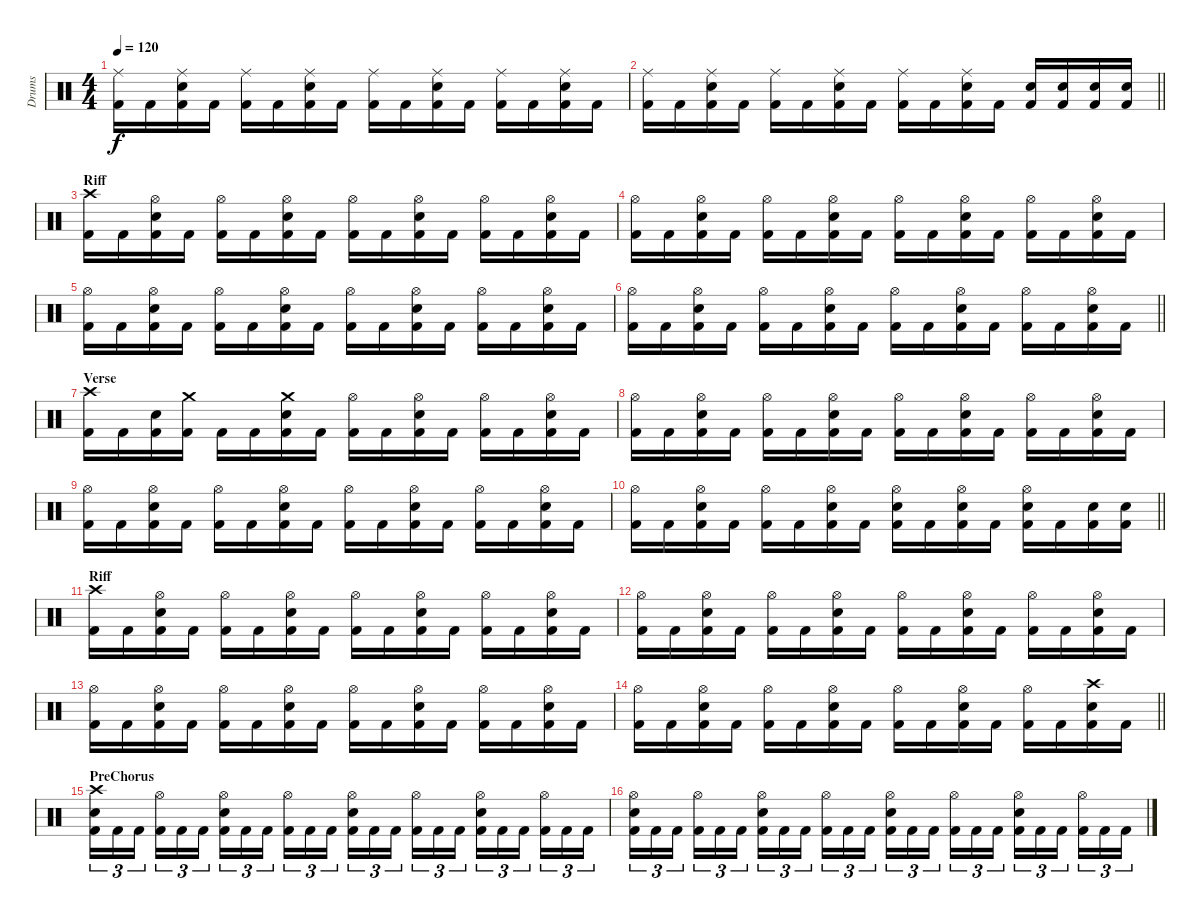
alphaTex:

\track ("Drums" "Drums") {instrument percussion}
\staff {score}
\articulation defaults
\ts (4 4)
\tempo 120
\clef neutral
\ks c
("Ride (middle)" "Kick (hit) 2").16{dy f} "Kick (hit) 2".16 ("Ride (middle)" "Snare (hit) 2" "Kick (hit) 2").16 "Kick (hit) 2".16 ("Ride (middle)" "Kick (hit) 2").16 "Kick (hit) 2".16 ("Ride (middle)" "Snare (hit) 2" "Kick (hit) 2").16 "Kick (hit) 2".16 ("Ride (middle)" "Kick (hit) 2").16 "Kick (hit) 2".16 ("Ride (middle)" "Snare (hit) 2" "Kick (hit) 2").16 "Kick (hit) 2".16 ("Ride (middle)" "Kick (hit) 2").16 "Kick (hit) 2".16 ("Ride (middle)" "Snare (hit) 2" "Kick (hit) 2").16 "Kick (hit) 2".16 |
\barLineRight lightlight
("Ride (middle)" "Kick (hit) 2").16 "Kick (hit) 2".16 ("Ride (middle)" "Snare (hit) 2" "Kick (hit) 2").16 "Kick (hit) 2".16 ("Ride (middle)" "Kick (hit) 2").16 "Kick (hit) 2".16 ("Ride (middle)" "Snare (hit) 2" "Kick (hit) 2").16 "Kick (hit) 2".16 ("Ride (middle)" "Kick (hit) 2").16 "Kick (hit) 2".16 ("Ride (middle)" "Snare (hit) 2" "Kick (hit) 2").16 "Kick (hit) 2".16 ("Snare (hit) 2" "Kick (hit) 2").16 ("Snare (hit) 2" "Kick (hit) 2").16 ("Snare (hit) 2" "Kick (hit) 2").16 ("Snare (hit) 2" "Kick (hit) 2").16 |
\section ("" "Riff")
("Crash high (hit)" "Kick (hit) 2").16 "Kick (hit) 2".16 ("Hi-Hat (open)" "Snare (hit) 2" "Kick (hit) 2").16 "Kick (hit) 2".16 ("Hi-Hat (open)" "Kick (hit) 2").16 "Kick (hit) 2".16 ("Hi-Hat (open)" "Snare (hit) 2" "Kick (hit) 2").16 "Kick (hit) 2".16 ("Hi-Hat (open)" "Kick (hit) 2").16 "Kick (hit) 2".16 ("Hi-Hat (open)" "Snare (hit) 2" "Kick (hit) 2").16 "Kick (hit) 2".16 ("Hi-Hat (open)" "Kick (hit) 2").16 "Kick (hit) 2".16 ("Hi-Hat (open)" "Snare (hit) 2" "Kick (hit) 2").16 "Kick (hit) 2".16 |
("Hi-Hat (open)" "Kick (hit) 2").16 "Kick (hit) 2".16 ("Hi-Hat (open)" "Snare (hit) 2" "Kick (hit) 2").16 "Kick (hit) 2".16 ("Hi-Hat (open)" "Kick (hit) 2").16 "Kick (hit) 2".16 ("Hi-Hat (open)" "Snare (hit) 2" "Kick (hit) 2").16 "Kick (hit) 2".16 ("Hi-Hat (open)" "Kick (hit) 2").16 "Kick (hit) 2".16 ("Hi-Hat (open)" "Snare (hit) 2" "Kick (hit) 2").16 "Kick (hit) 2".16 ("Hi-Hat (open)" "Kick (hit) 2").16 "Kick (hit) 2".16 ("Hi-Hat (open)" "Snare (hit) 2" "Kick (hit) 2").16 "Kick (hit) 2".16 |
("Hi-Hat (open)" "Kick (hit) 2").16 "Kick (hit) 2".16 ("Hi-Hat (open)" "Snare (hit) 2" "Kick (hit) 2").16 "Kick (hit) 2".16 ("Hi-Hat (open)" "Kick (hit) 2").16 "Kick (hit) 2".16 ("Hi-Hat (open)" "Snare (hit) 2" "Kick (hit) 2").16 "Kick (hit) 2".16 ("Hi-Hat (open)" "Kick (hit) 2").16 "Kick (hit) 2".16 ("Hi-Hat (open)" "Snare (hit) 2" "Kick (hit) 2").16 "Kick (hit) 2".16 ("Hi-Hat (open)" "Kick (hit) 2").16 "Kick (hit) 2".16 ("Hi-Hat (open)" "Snare (hit) 2" "Kick (hit) 2").16 "Kick (hit) 2".16 |
\barLineRight lightlight
("Hi-Hat (open)" "Kick (hit) 2").16 "Kick (hit) 2".16 ("Hi-Hat (open)" "Snare (hit) 2" "Kick (hit) 2").16 "Kick (hit) 2".16 ("Hi-Hat (open)" "Kick (hit) 2").16 "Kick (hit) 2".16 ("Hi-Hat (open)" "Snare (hit) 2" "Kick (hit) 2").16 "Kick (hit) 2".16 ("Hi-Hat (open)" "Kick (hit) 2").16 "Kick (hit) 2".16 ("Hi-Hat (open)" "Snare (hit) 2" "Kick (hit) 2").16 "Kick (hit) 2".16 ("Hi-Hat (open)" "Kick (hit) 2").16 "Kick (hit) 2".16 ("Hi-Hat (open)" "Snare (hit) 2" "Kick (hit) 2").16 "Kick (hit) 2".16 |
\section ("" "Verse")
("Crash high (hit)" "Kick (hit) 2").16 "Kick (hit) 2".16 ("Snare (hit) 2" "Kick (hit) 2").16 ("Crash medium (hit)" "Kick (hit) 2").16 "Kick (hit) 2".16 "Kick (hit) 2".16 ("Crash medium (hit)" "Snare (hit) 2" "Kick (hit) 2").16 "Kick (hit) 2".16 ("Hi-Hat (open)" "Kick (hit) 2").16 "Kick (hit) 2".16 ("Hi-Hat (open)" "Snare (hit) 2" "Kick (hit) 2").16 "Kick (hit) 2".16 ("Hi-Hat (open)" "Kick (hit) 2").16 "Kick (hit) 2".16 ("Hi-Hat (open)" "Snare (hit) 2" "Kick (hit) 2").16 "Kick (hit) 2".16 |
("Hi-Hat (open)" "Kick (hit) 2").16 "Kick (hit) 2".16 ("Hi-Hat (open)" "Snare (hit) 2" "Kick (hit) 2").16 "Kick (hit) 2".16 ("Hi-Hat (open)" "Kick (hit) 2").16 "Kick (hit) 2".16 ("Hi-Hat (open)" "Snare (hit) 2" "Kick (hit) 2").16 "Kick (hit) 2".16 ("Hi-Hat (open)" "Kick (hit) 2").16 "Kick (hit) 2".16 ("Hi-Hat (open)" "Snare (hit) 2" "Kick (hit) 2").16 "Kick (hit) 2".16 ("Hi-Hat (open)" "Kick (hit) 2").16 "Kick (hit) 2".16 ("Hi-Hat (open)" "Snare (hit) 2" "Kick (hit) 2").16 "Kick (hit) 2".16 |
("Hi-Hat (open)" "Kick (hit) 2").16 "Kick (hit) 2".16 ("Hi-Hat (open)" "Snare (hit) 2" "Kick (hit) 2").16 "Kick (hit) 2".16 ("Hi-Hat (open)" "Kick (hit) 2").16 "Kick (hit) 2".16 ("Hi-Hat (open)" "Snare (hit) 2" "Kick (hit) 2").16 "Kick (hit) 2".16 ("Hi-Hat (open)" "Kick (hit) 2").16 "Kick (hit) 2".16 ("Hi-Hat (open)" "Snare (hit) 2" "Kick (hit) 2").16 "Kick (hit) 2".16 ("Hi-Hat (open)" "Kick (hit) 2").16 "Kick (hit) 2".16 ("Hi-Hat (open)" "Snare (hit) 2" "Kick (hit) 2").16 "Kick (hit) 2".16 |
\barLineRight lightlight
("Hi-Hat (open)" "Kick (hit) 2").16 "Kick (hit) 2".16 ("Hi-Hat (open)" "Snare (hit) 2" "Kick (hit) 2").16 "Kick (hit) 2".16 ("Hi-Hat (open)" "Kick (hit) 2").16 "Kick (hit) 2".16 ("Hi-Hat (open)" "Snare (hit) 2" "Kick (hit) 2").16 "Kick (hit) 2".16 ("Hi-Hat (open)" "Snare (hit) 2" "Kick (hit) 2").16 "Kick (hit) 2".16 ("Hi-Hat (open)" "Snare (hit) 2" "Kick (hit) 2").16 "Kick (hit) 2".16 ("Hi-Hat (open)" "Snare (hit) 2" "Kick (hit) 2").16 "Kick (hit) 2".16 ("Snare (hit) 2" "Kick (hit) 2").16 ("Snare (hit) 2" "Kick (hit) 2").16 |
\section ("" "Riff")
("Crash high (hit)" "Kick (hit) 2").16 "Kick (hit) 2".16 ("Hi-Hat (open)" "Snare (hit) 2" "Kick (hit) 2").16 "Kick (hit) 2".16 ("Hi-Hat (open)" "Kick (hit) 2").16 "Kick (hit) 2".16 ("Hi-Hat (open)" "Snare (hit) 2" "Kick (hit) 2").16 "Kick (hit) 2".16 ("Hi-Hat (open)" "Kick (hit) 2").16 "Kick (hit) 2".16 ("Hi-Hat (open)" "Snare (hit) 2" "Kick (hit) 2").16 "Kick (hit) 2".16 ("Hi-Hat (open)" "Kick (hit) 2").16 "Kick (hit) 2".16 ("Hi-Hat (open)" "Snare (hit) 2" "Kick (hit) 2").16 "Kick (hit) 2".16 |
("Hi-Hat (open)" "Kick (hit) 2").16 "Kick (hit) 2".16 ("Hi-Hat (open)" "Snare (hit) 2" "Kick (hit) 2").16 "Kick (hit) 2".16 ("Hi-Hat (open)" "Kick (hit) 2").16 "Kick (hit) 2".16 ("Hi-Hat (open)" "Snare (hit) 2" "Kick (hit) 2").16 "Kick (hit) 2".16 ("Hi-Hat (open)" "Kick (hit) 2").16 "Kick (hit) 2".16 ("Hi-Hat (open)" "Snare (hit) 2" "Kick (hit) 2").16 "Kick (hit) 2".16 ("Hi-Hat (open)" "Kick (hit) 2").16 "Kick (hit) 2".16 ("Hi-Hat (open)" "Snare (hit) 2" "Kick (hit) 2").16 "Kick (hit) 2".16 |
("Hi-Hat (open)" "Kick (hit) 2").16 "Kick (hit) 2".16 ("Hi-Hat (open)" "Snare (hit) 2" "Kick (hit) 2").16 "Kick (hit) 2".16 ("Hi-Hat (open)" "Kick (hit) 2").16 "Kick (hit) 2".16 ("Hi-Hat (open)" "Snare (hit) 2" "Kick (hit) 2").16 "Kick (hit) 2".16 ("Hi-Hat (open)" "Kick (hit) 2").16 "Kick (hit) 2".16 ("Hi-Hat (open)" "Snare (hit) 2" "Kick (hit) 2").16 "Kick (hit) 2".16 ("Hi-Hat (open)" "Kick (hit) 2").16 "Kick (hit) 2".16 ("Hi-Hat (open)" "Snare (hit) 2" "Kick (hit) 2").16 "Kick (hit) 2".16 |
\barLineRight lightlight
("Hi-Hat (open)" "Kick (hit) 2").16 "Kick (hit) 2".16 ("Hi-Hat (open)" "Snare (hit) 2" "Kick (hit) 2").16 "Kick (hit) 2".16 ("Hi-Hat (open)" "Kick (hit) 2").16 "Kick (hit) 2".16 ("Hi-Hat (open)" "Snare (hit) 2" "Kick (hit) 2").16 "Kick (hit) 2".16 ("Hi-Hat (open)" "Kick (hit) 2").16 "Kick (hit) 2".16 ("Hi-Hat (open)" "Snare (hit) 2" "Kick (hit) 2").16 "Kick (hit) 2".16 ("Hi-Hat (open)" "Kick (hit) 2").16 "Kick (hit) 2".16 ("Crash high (hit)" "Snare (hit) 2" "Kick (hit) 2").16 "Kick (hit) 2".16 |
\section ("" "PreChorus")
("Crash high (hit)" "Snare (hit) 2" "Kick (hit) 2").16{tu (3 2)} "Kick (hit) 2".16{tu (3 2)} "Kick (hit) 2".16{tu (3 2)} ("Hi-Hat (open)" "Kick (hit) 2").16{tu (3 2)} "Kick (hit) 2".16{tu (3 2)} "Kick (hit) 2".16{tu (3 2)} ("Hi-Hat (open)" "Snare (hit) 2" "Kick (hit) 2").16{tu (3 2)} "Kick (hit) 2".16{tu (3 2)} "Kick (hit) 2".16{tu (3 2)} ("Hi-Hat (open)" "Kick (hit) 2").16{tu (3 2)} "Kick (hit) 2".16{tu (3 2)} "Kick (hit) 2".16{tu (3 2)} ("Hi-Hat (open)" "Snare (hit) 2" "Kick (hit) 2").16{tu (3 2)} "Kick (hit) 2".16{tu (3 2)} "Kick (hit) 2".16{tu (3 2)} ("Hi-Hat (open)" "Kick (hit) 2").16{tu (3 2)} "Kick (hit) 2".16{tu (3 2)} "Kick (hit) 2".16{tu (3 2)} ("Hi-Hat (open)" "Snare (hit) 2" "Kick (hit) 2").16{tu (3 2)} "Kick (hit) 2".16{tu (3 2)} "Kick (hit) 2".16{tu (3 2)} ("Hi-Hat (open)" "Kick (hit) 2").16{tu (3 2)} "Kick (hit) 2".16{tu (3 2)} "Kick (hit) 2".16{tu (3 2)} |
("Hi-Hat (open)" "Snare (hit) 2" "Kick (hit) 2").16{tu (3 2)} "Kick (hit) 2".16{tu (3 2)} "Kick (hit) 2".16{tu (3 2)} ("Hi-Hat (open)" "Kick (hit) 2").16{tu (3 2)} "Kick (hit) 2".16{tu (3 2)} "Kick (hit) 2".16{tu (3 2)} ("Hi-Hat (open)" "Snare (hit) 2" "Kick (hit) 2").16{tu (3 2)} "Kick (hit) 2".16{tu (3 2)} "Kick (hit) 2".16{tu (3 2)} ("Hi-Hat (open)" "Kick (hit) 2").16{tu (3 2)} "Kick (hit) 2".16{tu (3 2)} "Kick (hit) 2".16{tu (3 2)} ("Hi-Hat (open)" "Snare (hit) 2" "Kick (hit) 2").16{tu (3 2)} "Kick (hit) 2".16{tu (3 2)} "Kick (hit) 2".16{tu (3 2)} ("Hi-Hat (open)" "Kick (hit) 2").16{tu (3 2)} "Kick (hit) 2".16{tu (3 2)} "Kick (hit) 2".16{tu (3 2)} ("Hi-Hat (open)" "Snare (hit) 2" "Kick (hit) 2").16{tu (3 2)} "Kick (hit) 2".16{tu (3 2)} "Kick (hit) 2".16{tu (3 2)} ("Hi-Hat (open)" "Kick (hit) 2").16{tu (3 2)} "Kick (hit) 2".16{tu (3 2)} "Kick (hit) 2".16{tu (3 2)}
